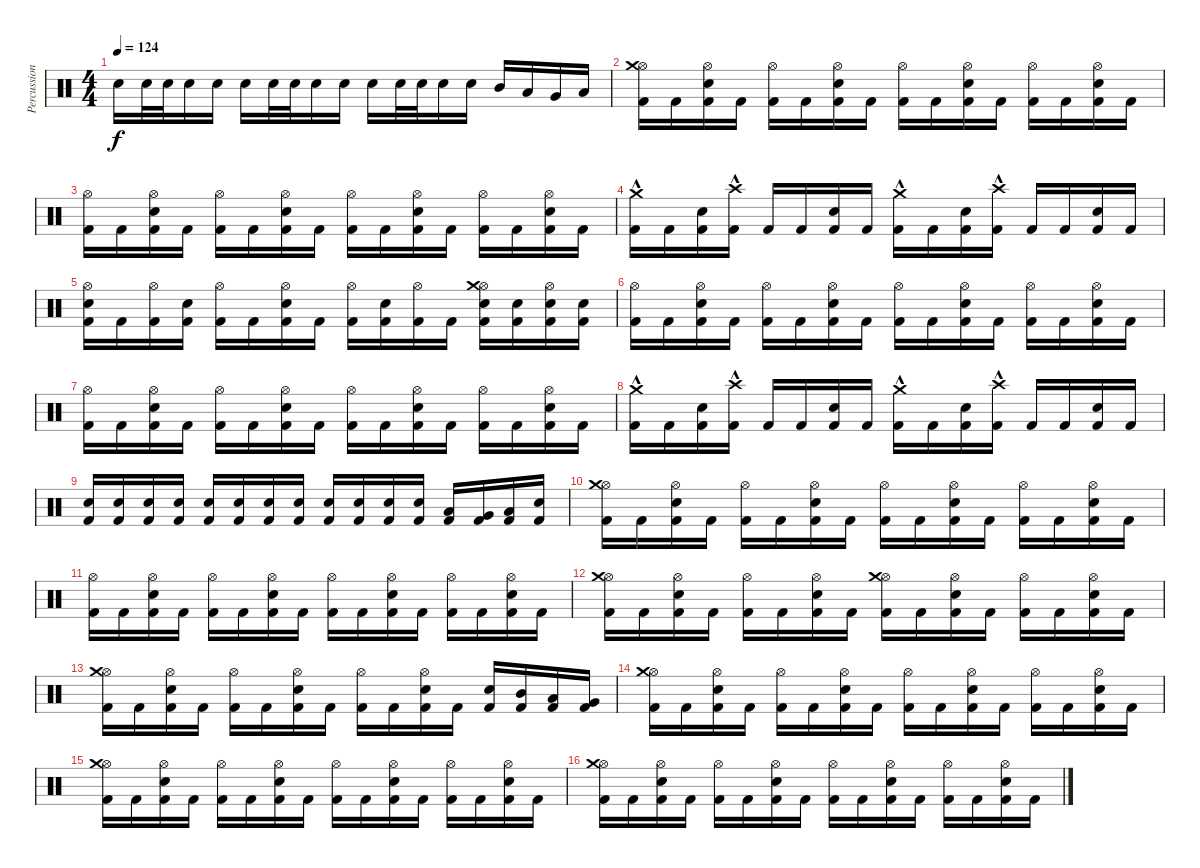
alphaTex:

\track ("Percussion" "Percussion") {instrument percussion}
\staff {score}
\articulation defaults
\ts (4 4)
\tempo 124
\clef neutral
\ks c "Electric Snare (hit)".16{dy f} "Electric Snare (hit)".32 "Electric Snare (hit)".32 "Electric Snare (hit)".16 "Electric Snare (hit)".16 "Electric Snare (hit)".16 "Electric Snare (hit)".32 "Electric Snare (hit)".32 "Electric Snare (hit)".16 "Electric Snare (hit)".16 "Electric Snare (hit)".16 "Electric Snare (hit)".32 "Electric Snare (hit)".32 "Electric Snare (hit)".16 "Electric Snare (hit)".16 "Mid Tom (hit)".16 "Low Tom (hit)".16 "Very Low Tom (hit)".16 "Low Floor Tom (hit)".16
|
("Kick (hit) 2" "Hi-Hat (open)" "Crash medium (hit)").16 "Kick (hit) 2".16 ("Kick (hit) 2" "Electric Snare (hit)" "Hi-Hat (open)").16 "Kick (hit) 2".16 ("Kick (hit) 2" "Hi-Hat (open)").16 "Kick (hit) 2".16 ("Kick (hit) 2" "Electric Snare (hit)" "Hi-Hat (open)").16 "Kick (hit) 2".16 ("Kick (hit) 2" "Hi-Hat (open)").16 "Kick (hit) 2".16 ("Kick (hit) 2" "Electric Snare (hit)" "Hi-Hat (open)").16 "Kick (hit) 2".16 ("Kick (hit) 2" "Hi-Hat (open)").16 "Kick (hit) 2".16 ("Kick (hit) 2" "Electric Snare (hit)" "Hi-Hat (open)").16 "Kick (hit) 2".16 |
("Kick (hit) 2" "Hi-Hat (open)").16 "Kick (hit) 2".16 ("Kick (hit) 2" "Electric Snare (hit)" "Hi-Hat (open)").16 "Kick (hit) 2".16 ("Kick (hit) 2" "Hi-Hat (open)").16 "Kick (hit) 2".16 ("Kick (hit) 2" "Electric Snare (hit)" "Hi-Hat (open)").16 "Kick (hit) 2".16 ("Kick (hit) 2" "Hi-Hat (open)").16 "Kick (hit) 2".16 ("Kick (hit) 2" "Electric Snare (hit)" "Hi-Hat (open)").16 "Kick (hit) 2".16 ("Kick (hit) 2" "Hi-Hat (open)").16 "Kick (hit) 2".16 ("Kick (hit) 2" "Electric Snare (hit)" "Hi-Hat (open)").16 "Kick (hit) 2".16 |
("Kick (hit) 2" "Crash medium (hit)"{hac}).16 "Kick (hit) 2".16 ("Kick (hit) 2" "Electric Snare (hit)").16 ("Kick (hit) 2" "Crash high (hit)"{hac}).16 "Kick (hit) 2".16 "Kick (hit) 2".16 ("Kick (hit) 2" "Electric Snare (hit)").16 "Kick (hit) 2".16 ("Kick (hit) 2" "Crash medium (hit)"{hac}).16 "Kick (hit) 2".16 ("Kick (hit) 2" "Electric Snare (hit)").16 ("Kick (hit) 2" "Crash high (hit)"{hac}).16 "Kick (hit) 2".16 "Kick (hit) 2".16 ("Kick (hit) 2" "Electric Snare (hit)").16 "Kick (hit) 2".16 |
("Kick (hit) 2" "Electric Snare (hit)" "Hi-Hat (open)").16 "Kick (hit) 2".16 ("Kick (hit) 2" "Hi-Hat (open)").16 ("Kick (hit) 2" "Electric Snare (hit)").16 ("Kick (hit) 2" "Hi-Hat (open)").16 "Kick (hit) 2".16 ("Kick (hit) 2" "Electric Snare (hit)" "Hi-Hat (open)").16 "Kick (hit) 2".16 ("Kick (hit) 2" "Hi-Hat (open)").16 ("Kick (hit) 2" "Electric Snare (hit)").16 ("Kick (hit) 2" "Hi-Hat (open)").16 "Kick (hit) 2".16 ("Kick (hit) 2" "Electric Snare (hit)" "Hi-Hat (open)" "Crash medium (hit)").16 ("Kick (hit) 2" "Electric Snare (hit)").16 ("Kick (hit) 2" "Electric Snare (hit)" "Hi-Hat (open)").16 ("Kick (hit) 2" "Electric Snare (hit)").16 |
("Kick (hit) 2" "Hi-Hat (open)").16 "Kick (hit) 2".16 ("Kick (hit) 2" "Electric Snare (hit)" "Hi-Hat (open)").16 "Kick (hit) 2".16 ("Kick (hit) 2" "Hi-Hat (open)").16 "Kick (hit) 2".16 ("Kick (hit) 2" "Electric Snare (hit)" "Hi-Hat (open)").16 "Kick (hit) 2".16 ("Kick (hit) 2" "Hi-Hat (open)").16 "Kick (hit) 2".16 ("Kick (hit) 2" "Electric Snare (hit)" "Hi-Hat (open)").16 "Kick (hit) 2".16 ("Kick (hit) 2" "Hi-Hat (open)").16 "Kick (hit) 2".16 ("Kick (hit) 2" "Electric Snare (hit)" "Hi-Hat (open)").16 "Kick (hit) 2".16 |
("Kick (hit) 2" "Hi-Hat (open)").16 "Kick (hit) 2".16 ("Kick (hit) 2" "Electric Snare (hit)" "Hi-Hat (open)").16 "Kick (hit) 2".16 ("Kick (hit) 2" "Hi-Hat (open)").16 "Kick (hit) 2".16 ("Kick (hit) 2" "Electric Snare (hit)" "Hi-Hat (open)").16 "Kick (hit) 2".16 ("Kick (hit) 2" "Hi-Hat (open)").16 "Kick (hit) 2".16 ("Kick (hit) 2" "Electric Snare (hit)" "Hi-Hat (open)").16 "Kick (hit) 2".16 ("Kick (hit) 2" "Hi-Hat (open)").16 "Kick (hit) 2".16 ("Kick (hit) 2" "Electric Snare (hit)" "Hi-Hat (open)").16 "Kick (hit) 2".16 |
("Kick (hit) 2" "Crash medium (hit)"{hac}).16 "Kick (hit) 2".16 ("Kick (hit) 2" "Electric Snare (hit)").16 ("Kick (hit) 2" "Crash high (hit)"{hac}).16 "Kick (hit) 2".16 "Kick (hit) 2".16 ("Kick (hit) 2" "Electric Snare (hit)").16 "Kick (hit) 2".16 ("Kick (hit) 2" "Crash medium (hit)"{hac}).16 "Kick (hit) 2".16 ("Kick (hit) 2" "Electric Snare (hit)").16 ("Kick (hit) 2" "Crash high (hit)"{hac}).16 "Kick (hit) 2".16 "Kick (hit) 2".16 ("Kick (hit) 2" "Electric Snare (hit)").16 "Kick (hit) 2".16 |
("Kick (hit) 2" "Electric Snare (hit)").16 ("Kick (hit) 2" "Electric Snare (hit)").16 ("Kick (hit) 2" "Electric Snare (hit)").16 ("Kick (hit) 2" "Electric Snare (hit)").16 ("Kick (hit) 2" "Electric Snare (hit)").16 ("Kick (hit) 2" "Electric Snare (hit)").16 ("Kick (hit) 2" "Electric Snare (hit)").16 ("Kick (hit) 2" "Electric Snare (hit)").16 ("Kick (hit) 2" "Electric Snare (hit)").16 ("Kick (hit) 2" "Electric Snare (hit)").16 ("Kick (hit) 2" "Electric Snare (hit)").16 ("Kick (hit) 2" "Electric Snare (hit)").16 ("Kick (hit) 2" "Low Tom (hit)").16 ("Kick (hit) 2" "Very Low Tom (hit)").16 ("Kick (hit) 2" "Low Floor Tom (hit)").16 ("Kick (hit) 2" "Electric Snare (hit)").16 |
("Kick (hit) 2" "Hi-Hat (open)" "Crash medium (hit)").16 "Kick (hit) 2".16 ("Kick (hit) 2" "Electric Snare (hit)" "Hi-Hat (open)").16 "Kick (hit) 2".16 ("Kick (hit) 2" "Hi-Hat (open)").16 "Kick (hit) 2".16 ("Kick (hit) 2" "Electric Snare (hit)" "Hi-Hat (open)").16 "Kick (hit) 2".16 ("Kick (hit) 2" "Hi-Hat (open)").16 "Kick (hit) 2".16 ("Kick (hit) 2" "Electric Snare (hit)" "Hi-Hat (open)").16 "Kick (hit) 2".16 ("Kick (hit) 2" "Hi-Hat (open)").16 "Kick (hit) 2".16 ("Kick (hit) 2" "Electric Snare (hit)" "Hi-Hat (open)").16 "Kick (hit) 2".16 |
("Kick (hit) 2" "Hi-Hat (open)").16 "Kick (hit) 2".16 ("Kick (hit) 2" "Electric Snare (hit)" "Hi-Hat (open)").16 "Kick (hit) 2".16 ("Kick (hit) 2" "Hi-Hat (open)").16 "Kick (hit) 2".16 ("Kick (hit) 2" "Electric Snare (hit)" "Hi-Hat (open)").16 "Kick (hit) 2".16 ("Kick (hit) 2" "Hi-Hat (open)").16 "Kick (hit) 2".16 ("Kick (hit) 2" "Electric Snare (hit)" "Hi-Hat (open)").16 "Kick (hit) 2".16 ("Kick (hit) 2" "Hi-Hat (open)").16 "Kick (hit) 2".16 ("Kick (hit) 2" "Electric Snare (hit)" "Hi-Hat (open)").16 "Kick (hit) 2".16 |
("Kick (hit) 2" "Hi-Hat (open)" "Crash medium (hit)").16 "Kick (hit) 2".16 ("Kick (hit) 2" "Electric Snare (hit)" "Hi-Hat (open)").16 "Kick (hit) 2".16 ("Kick (hit) 2" "Hi-Hat (open)").16 "Kick (hit) 2".16 ("Kick (hit) 2" "Electric Snare (hit)" "Hi-Hat (open)").16 "Kick (hit) 2".16 ("Kick (hit) 2" "Hi-Hat (open)" "Crash medium (hit)").16 "Kick (hit) 2".16 ("Kick (hit) 2" "Electric Snare (hit)" "Hi-Hat (open)").16 "Kick (hit) 2".16 ("Kick (hit) 2" "Hi-Hat (open)").16 "Kick (hit) 2".16 ("Kick (hit) 2" "Electric Snare (hit)" "Hi-Hat (open)").16 "Kick (hit) 2".16 |
("Kick (hit) 2" "Hi-Hat (open)" "Crash medium (hit)").16 "Kick (hit) 2".16 ("Kick (hit) 2" "Electric Snare (hit)" "Hi-Hat (open)").16 "Kick (hit) 2".16 ("Kick (hit) 2" "Hi-Hat (open)").16 "Kick (hit) 2".16 ("Kick (hit) 2" "Electric Snare (hit)" "Hi-Hat (open)").16 "Kick (hit) 2".16 ("Kick (hit) 2" "Hi-Hat (open)").16 "Kick (hit) 2".16 ("Kick (hit) 2" "Electric Snare (hit)" "Hi-Hat (open)").16 "Kick (hit) 2".16 ("Kick (hit) 2" "Electric Snare (hit)").16 ("Kick (hit) 2" "Mid Tom (hit)").16 ("Kick (hit) 2" "Low Tom (hit)").16 ("Kick (hit) 2" "Very Low Tom (hit)").16 |
("Kick (hit) 2" "Hi-Hat (open)" "Crash medium (hit)").16 "Kick (hit) 2".16 ("Kick (hit) 2" "Electric Snare (hit)" "Hi-Hat (open)").16 "Kick (hit) 2".16 ("Kick (hit) 2" "Hi-Hat (open)").16 "Kick (hit) 2".16 ("Kick (hit) 2" "Electric Snare (hit)" "Hi-Hat (open)").16 "Kick (hit) 2".16 ("Kick (hit) 2" "Hi-Hat (open)").16 "Kick (hit) 2".16 ("Kick (hit) 2" "Electric Snare (hit)" "Hi-Hat (open)").16 "Kick (hit) 2".16 ("Kick (hit) 2" "Hi-Hat (open)").16 "Kick (hit) 2".16 ("Kick (hit) 2" "Electric Snare (hit)" "Hi-Hat (open)").16 "Kick (hit) 2".16 |
("Kick (hit) 2" "Hi-Hat (open)" "Crash medium (hit)").16 "Kick (hit) 2".16 ("Kick (hit) 2" "Electric Snare (hit)" "Hi-Hat (open)").16 "Kick (hit) 2".16 ("Kick (hit) 2" "Hi-Hat (open)").16 "Kick (hit) 2".16 ("Kick (hit) 2" "Electric Snare (hit)" "Hi-Hat (open)").16 "Kick (hit) 2".16 ("Kick (hit) 2" "Hi-Hat (open)").16 "Kick (hit) 2".16 ("Kick (hit) 2" "Electric Snare (hit)" "Hi-Hat (open)").16 "Kick (hit) 2".16 ("Kick (hit) 2" "Hi-Hat (open)").16 "Kick (hit) 2".16 ("Kick (hit) 2" "Electric Snare (hit)" "Hi-Hat (open)").16 "Kick (hit) 2".16 |
("Kick (hit) 2" "Hi-Hat (open)" "Crash medium (hit)").16 "Kick (hit) 2".16 ("Kick (hit) 2" "Electric Snare (hit)" "Hi-Hat (open)").16 "Kick (hit) 2".16 ("Kick (hit) 2" "Hi-Hat (open)").16 "Kick (hit) 2".16 ("Kick (hit) 2" "Electric Snare (hit)" "Hi-Hat (open)").16 "Kick (hit) 2".16 ("Kick (hit) 2" "Hi-Hat (open)").16 "Kick (hit) 2".16 ("Kick (hit) 2" "Electric Snare (hit)" "Hi-Hat (open)").16 "Kick (hit) 2".16 ("Kick (hit) 2" "Hi-Hat (open)").16 "Kick (hit) 2".16 ("Kick (hit) 2" "Electric Snare (hit)" "Hi-Hat (open)").16 "Kick (hit) 2".16
